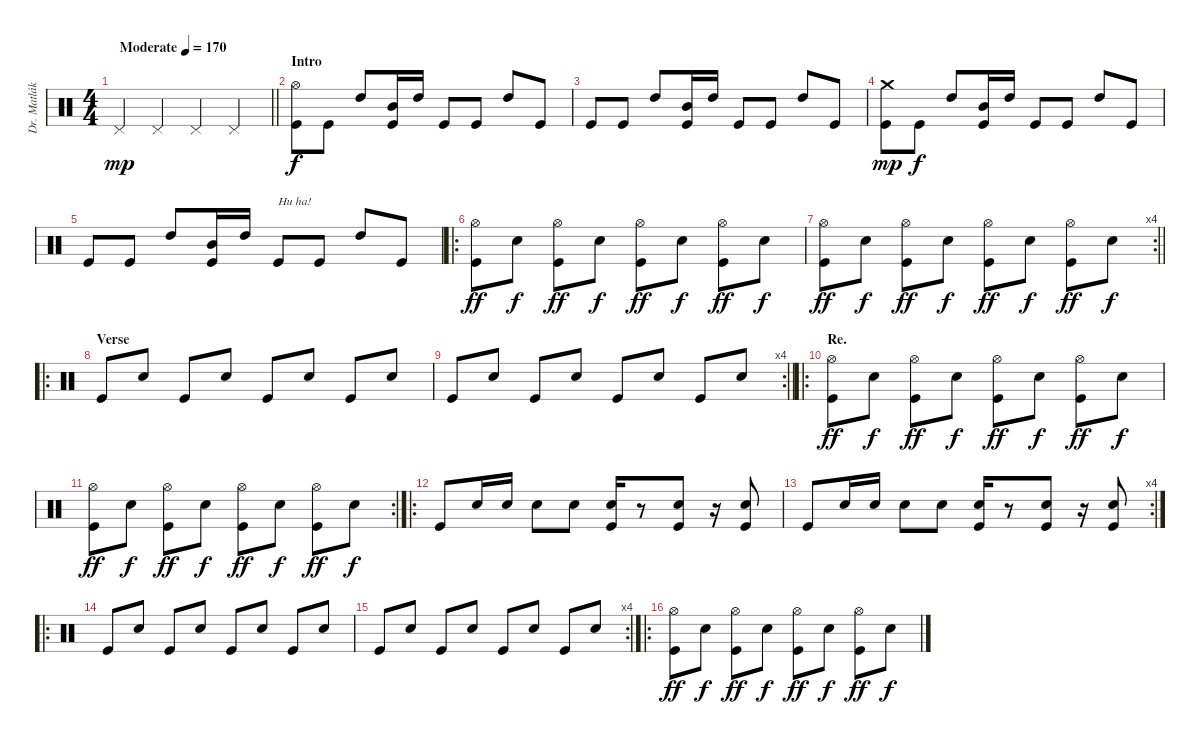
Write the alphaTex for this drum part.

\track ("Dr. Matlák" "Dr. Matlák") {instrument percussion}
\staff {score}
\articulation defaults
\ts (4 4)
\tempo (170 "Moderate")
\clef neutral
\barLineRight lightlight
\ks c "Pedal Hi-Hat (hit)".4{dy mp} "Pedal Hi-Hat (hit)".4 "Pedal Hi-Hat (hit)".4 "Pedal Hi-Hat (hit)".4
|
\section ("" "Intro")
("Hi-Hat (open)" "Kick (hit)").8{dy f} "Kick (hit)".8 "High Tom (hit)".8 ("Mid Tom (hit)" "Kick (hit)").16 "High Tom (hit)".16 "Kick (hit)".8 "Kick (hit)".8 "High Tom (hit)".8 "Kick (hit)".8 |
"Kick (hit)".8 "Kick (hit)".8 "High Tom (hit)".8 ("Mid Tom (hit)" "Kick (hit)").16 "High Tom (hit)".16 "Kick (hit)".8 "Kick (hit)".8 "High Tom (hit)".8 "Kick (hit)".8 |
("Crash medium (hit)" "Kick (hit)").8{dy mp} "Kick (hit)".8{dy f} "High Tom (hit)".8 ("Mid Tom (hit)" "Kick (hit)").16 "High Tom (hit)".16 "Kick (hit)".8 "Kick (hit)".8 "High Tom (hit)".8 "Kick (hit)".8 |
"Kick (hit)".8 "Kick (hit)".8 "High Tom (hit)".8 ("Mid Tom (hit)" "Kick (hit)").16 "High Tom (hit)".16 "Kick (hit)".8{txt "Hu ha!"} "Kick (hit)".8 "High Tom (hit)".8 "Kick (hit)".8 |
\ro
("Hi-Hat (open)" "Kick (hit)").8{dy ff} "Electric Snare (hit)".8{dy f} ("Hi-Hat (open)" "Kick (hit)").8{dy ff} "Electric Snare (hit)".8{dy f} ("Hi-Hat (open)" "Kick (hit)").8{dy ff} "Electric Snare (hit)".8{dy f} ("Hi-Hat (open)" "Kick (hit)").8{dy ff} "Electric Snare (hit)".8{dy f} |
\rc 4
\barLineRight lightlight
("Hi-Hat (open)" "Kick (hit)").8{dy ff} "Electric Snare (hit)".8{dy f} ("Hi-Hat (open)" "Kick (hit)").8{dy ff} "Electric Snare (hit)".8{dy f} ("Hi-Hat (open)" "Kick (hit)").8{dy ff} "Electric Snare (hit)".8{dy f} ("Hi-Hat (open)" "Kick (hit)").8{dy ff} "Electric Snare (hit)".8{dy f} |
\ro
\section ("" "Verse")
"Kick (hit)".8 "Electric Snare (hit)".8 "Kick (hit)".8 "Electric Snare (hit)".8 "Kick (hit)".8 "Electric Snare (hit)".8 "Kick (hit)".8 "Electric Snare (hit)".8 |
\rc 4
\barLineRight lightlight "Kick (hit)".8 "Electric Snare (hit)".8 "Kick (hit)".8 "Electric Snare (hit)".8 "Kick (hit)".8 "Electric Snare (hit)".8 "Kick (hit)".8 "Electric Snare (hit)".8
|
\ro
\section ("" "Re.")
("Hi-Hat (open)" "Kick (hit)").8{dy ff} "Electric Snare (hit)".8{dy f} ("Hi-Hat (open)" "Kick (hit)").8{dy ff} "Electric Snare (hit)".8{dy f} ("Hi-Hat (open)" "Kick (hit)").8{dy ff} "Electric Snare (hit)".8{dy f} ("Hi-Hat (open)" "Kick (hit)").8{dy ff} "Electric Snare (hit)".8{dy f} |
\rc 2
("Hi-Hat (open)" "Kick (hit)").8{dy ff} "Electric Snare (hit)".8{dy f} ("Hi-Hat (open)" "Kick (hit)").8{dy ff} "Electric Snare (hit)".8{dy f} ("Hi-Hat (open)" "Kick (hit)").8{dy ff} "Electric Snare (hit)".8{dy f} ("Hi-Hat (open)" "Kick (hit)").8{dy ff} "Electric Snare (hit)".8{dy f} |
\ro "Kick (hit)".8 "Electric Snare (hit)".16 "Electric Snare (hit)".16 "Electric Snare (hit)".8 "Electric Snare (hit)".8
("Electric Snare (hit)" "Kick (hit)").16 r.8 ("Electric Snare (hit)" "Kick (hit)").8 r.16 ("Electric Snare (hit)" "Kick (hit)").8 |
\rc 4 "Kick (hit)".8 "Electric Snare (hit)".16 "Electric Snare (hit)".16 "Electric Snare (hit)".8 "Electric Snare (hit)".8
("Electric Snare (hit)" "Kick (hit)").16 r.8 ("Electric Snare (hit)" "Kick (hit)").8 r.16 ("Electric Snare (hit)" "Kick (hit)").8 |
\ro "Kick (hit)".8 "Electric Snare (hit)".8 "Kick (hit)".8 "Electric Snare (hit)".8 "Kick (hit)".8 "Electric Snare (hit)".8 "Kick (hit)".8 "Electric Snare (hit)".8
|
\rc 4 "Kick (hit)".8 "Electric Snare (hit)".8 "Kick (hit)".8 "Electric Snare (hit)".8 "Kick (hit)".8 "Electric Snare (hit)".8 "Kick (hit)".8 "Electric Snare (hit)".8
|
\ro
("Hi-Hat (open)" "Kick (hit)").8{dy ff} "Electric Snare (hit)".8{dy f} ("Hi-Hat (open)" "Kick (hit)").8{dy ff} "Electric Snare (hit)".8{dy f} ("Hi-Hat (open)" "Kick (hit)").8{dy ff} "Electric Snare (hit)".8{dy f} ("Hi-Hat (open)" "Kick (hit)").8{dy ff} "Electric Snare (hit)".8{dy f}
